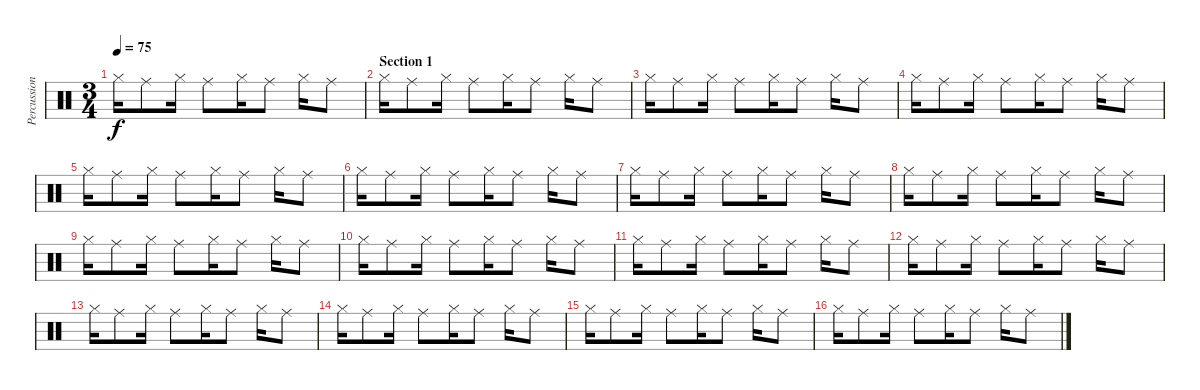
\track ("Percussions" "Percussion") {instrument percussion}
\staff {score}
\articulation defaults
\ts (3 4)
\tempo 75
\clef neutral
\ks c "Hi-Hat (closed)".16{dy f} "Ride (middle)".8 "Hi-Hat (closed)".16 "Ride (middle)".8 "Hi-Hat (closed)".16 "Ride (middle)".8 "Hi-Hat (closed)".16 "Ride (middle)".8
|
\section ("" "Section 1")
"Hi-Hat (closed)".16 "Ride (middle)".8 "Hi-Hat (closed)".16 "Ride (middle)".8 "Hi-Hat (closed)".16 "Ride (middle)".8 "Hi-Hat (closed)".16 "Ride (middle)".8 |
"Hi-Hat (closed)".16 "Ride (middle)".8 "Hi-Hat (closed)".16 "Ride (middle)".8 "Hi-Hat (closed)".16 "Ride (middle)".8 "Hi-Hat (closed)".16 "Ride (middle)".8 |
"Hi-Hat (closed)".16 "Ride (middle)".8 "Hi-Hat (closed)".16 "Ride (middle)".8 "Hi-Hat (closed)".16 "Ride (middle)".8 "Hi-Hat (closed)".16 "Ride (middle)".8 |
"Hi-Hat (closed)".16 "Ride (middle)".8 "Hi-Hat (closed)".16 "Ride (middle)".8 "Hi-Hat (closed)".16 "Ride (middle)".8 "Hi-Hat (closed)".16 "Ride (middle)".8 |
"Hi-Hat (closed)".16 "Ride (middle)".8 "Hi-Hat (closed)".16 "Ride (middle)".8 "Hi-Hat (closed)".16 "Ride (middle)".8 "Hi-Hat (closed)".16 "Ride (middle)".8 |
"Hi-Hat (closed)".16 "Ride (middle)".8 "Hi-Hat (closed)".16 "Ride (middle)".8 "Hi-Hat (closed)".16 "Ride (middle)".8 "Hi-Hat (closed)".16 "Ride (middle)".8 |
"Hi-Hat (closed)".16 "Ride (middle)".8 "Hi-Hat (closed)".16 "Ride (middle)".8 "Hi-Hat (closed)".16 "Ride (middle)".8 "Hi-Hat (closed)".16 "Ride (middle)".8 |
"Hi-Hat (closed)".16 "Ride (middle)".8 "Hi-Hat (closed)".16 "Ride (middle)".8 "Hi-Hat (closed)".16 "Ride (middle)".8 "Hi-Hat (closed)".16 "Ride (middle)".8 |
"Hi-Hat (closed)".16 "Ride (middle)".8 "Hi-Hat (closed)".16 "Ride (middle)".8 "Hi-Hat (closed)".16 "Ride (middle)".8 "Hi-Hat (closed)".16 "Ride (middle)".8 |
"Hi-Hat (closed)".16 "Ride (middle)".8 "Hi-Hat (closed)".16 "Ride (middle)".8 "Hi-Hat (closed)".16 "Ride (middle)".8 "Hi-Hat (closed)".16 "Ride (middle)".8 |
"Hi-Hat (closed)".16 "Ride (middle)".8 "Hi-Hat (closed)".16 "Ride (middle)".8 "Hi-Hat (closed)".16 "Ride (middle)".8 "Hi-Hat (closed)".16 "Ride (middle)".8 |
"Hi-Hat (closed)".16 "Ride (middle)".8 "Hi-Hat (closed)".16 "Ride (middle)".8 "Hi-Hat (closed)".16 "Ride (middle)".8 "Hi-Hat (closed)".16 "Ride (middle)".8 |
"Hi-Hat (closed)".16 "Ride (middle)".8 "Hi-Hat (closed)".16 "Ride (middle)".8 "Hi-Hat (closed)".16 "Ride (middle)".8 "Hi-Hat (closed)".16 "Ride (middle)".8 |
"Hi-Hat (closed)".16 "Ride (middle)".8 "Hi-Hat (closed)".16 "Ride (middle)".8 "Hi-Hat (closed)".16 "Ride (middle)".8 "Hi-Hat (closed)".16 "Ride (middle)".8 |
"Hi-Hat (closed)".16 "Ride (middle)".8 "Hi-Hat (closed)".16 "Ride (middle)".8 "Hi-Hat (closed)".16 "Ride (middle)".8 "Hi-Hat (closed)".16 "Ride (middle)".8
